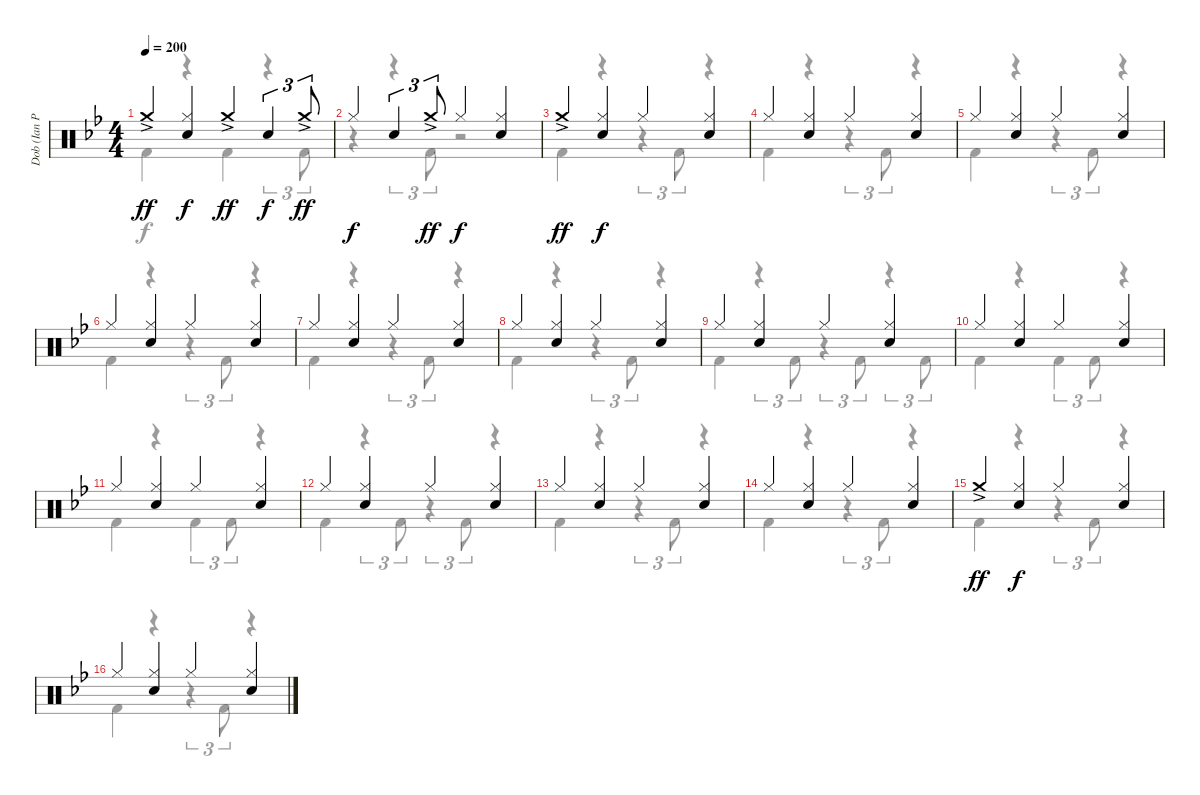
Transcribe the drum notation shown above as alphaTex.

\track ("Dob (Ian Paice)" "Dob (Ian P") {instrument percussion}
\staff {score}
\articulation defaults
\voice
\ts (4 4)
\tempo 200
\clef neutral
\ks bb "Crash medium (hit)"{ac}.4{dy ff}
("Hi-Hat (closed)" "Electric Snare (hit)").4{dy f} "Crash medium (hit)"{ac}.4{dy ff} "Electric Snare (hit)".4{tu (3 2) dy f} "Crash medium (hit)"{ac}.8{tu (3 2) dy ff} |
"Hi-Hat (closed)".4{dy f} "Electric Snare (hit)".4{tu (3 2)} "Crash medium (hit)"{ac}.8{tu (3 2) dy ff} "Hi-Hat (closed)".4{dy f} ("Hi-Hat (closed)" "Electric Snare (hit)").4 |
"Crash medium (hit)"{ac}.4{dy ff} ("Hi-Hat (closed)" "Electric Snare (hit)").4{dy f} "Hi-Hat (closed)".4 ("Hi-Hat (closed)" "Electric Snare (hit)").4 |
"Hi-Hat (closed)".4 ("Hi-Hat (closed)" "Electric Snare (hit)").4 "Hi-Hat (closed)".4 ("Hi-Hat (closed)" "Electric Snare (hit)").4 |
"Hi-Hat (closed)".4 ("Hi-Hat (closed)" "Electric Snare (hit)").4 "Hi-Hat (closed)".4 ("Hi-Hat (closed)" "Electric Snare (hit)").4 |
"Hi-Hat (closed)".4 ("Hi-Hat (closed)" "Electric Snare (hit)").4 "Hi-Hat (closed)".4 ("Hi-Hat (closed)" "Electric Snare (hit)").4 |
"Hi-Hat (closed)".4 ("Hi-Hat (closed)" "Electric Snare (hit)").4 "Hi-Hat (closed)".4 ("Hi-Hat (closed)" "Electric Snare (hit)").4 |
"Hi-Hat (closed)".4 ("Hi-Hat (closed)" "Electric Snare (hit)").4 "Hi-Hat (closed)".4 ("Hi-Hat (closed)" "Electric Snare (hit)").4 |
"Hi-Hat (closed)".4 ("Hi-Hat (closed)" "Electric Snare (hit)").4 "Hi-Hat (closed)".4 ("Hi-Hat (closed)" "Electric Snare (hit)").4 |
"Hi-Hat (closed)".4 ("Hi-Hat (closed)" "Electric Snare (hit)").4 "Hi-Hat (closed)".4 ("Hi-Hat (closed)" "Electric Snare (hit)").4 |
"Hi-Hat (closed)".4 ("Hi-Hat (closed)" "Electric Snare (hit)").4 "Hi-Hat (closed)".4 ("Hi-Hat (closed)" "Electric Snare (hit)").4 |
"Hi-Hat (closed)".4 ("Hi-Hat (closed)" "Electric Snare (hit)").4 "Hi-Hat (closed)".4 ("Hi-Hat (closed)" "Electric Snare (hit)").4 |
"Hi-Hat (closed)".4 ("Hi-Hat (closed)" "Electric Snare (hit)").4 "Hi-Hat (closed)".4 ("Hi-Hat (closed)" "Electric Snare (hit)").4 |
"Hi-Hat (closed)".4 ("Hi-Hat (closed)" "Electric Snare (hit)").4 "Hi-Hat (closed)".4 ("Hi-Hat (closed)" "Electric Snare (hit)").4 |
"Crash medium (hit)"{ac}.4{dy ff} ("Hi-Hat (closed)" "Electric Snare (hit)").4{dy f} "Hi-Hat (closed)".4 ("Hi-Hat (closed)" "Electric Snare (hit)").4 |
"Hi-Hat (closed)".4 ("Hi-Hat (closed)" "Electric Snare (hit)").4 "Hi-Hat (closed)".4 ("Hi-Hat (closed)" "Electric Snare (hit)").4
\voice
\clef neutral
\ottava regular
\simile none
\ks bb "Kick (hit) 2".4{dy f}
r.4 "Kick (hit) 2".4 r.4{tu (3 2)} "Kick (hit) 2".8{tu (3 2)} |
r.4 r.4{tu (3 2)} "Kick (hit) 2".8{tu (3 2)} r.2 |
"Kick (hit) 2".4 r.4 r.4{tu (3 2)} "Kick (hit) 2".8{tu (3 2)} r.4 |
"Kick (hit) 2".4 r.4 r.4{tu (3 2)} "Kick (hit) 2".8{tu (3 2)} r.4 |
"Kick (hit) 2".4 r.4 r.4{tu (3 2)} "Kick (hit) 2".8{tu (3 2)} r.4 |
"Kick (hit) 2".4 r.4 r.4{tu (3 2)} "Kick (hit) 2".8{tu (3 2)} r.4 |
"Kick (hit) 2".4 r.4 r.4{tu (3 2)} "Kick (hit) 2".8{tu (3 2)} r.4 |
"Kick (hit) 2".4 r.4 r.4{tu (3 2)} "Kick (hit) 2".8{tu (3 2)} r.4 |
"Kick (hit) 2".4 r.4{tu (3 2)} "Kick (hit) 2".8{tu (3 2)} r.4{tu (3 2)} "Kick (hit) 2".8{tu (3 2)} r.4{tu (3 2)} "Kick (hit) 2".8{tu (3 2)} |
"Kick (hit) 2".4 r.4 "Kick (hit) 2".4{tu (3 2)} "Kick (hit) 2".8{tu (3 2)} r.4 |
"Kick (hit) 2".4 r.4 "Kick (hit) 2".4{tu (3 2)} "Kick (hit) 2".8{tu (3 2)} r.4 |
"Kick (hit) 2".4 r.4{tu (3 2)} "Kick (hit) 2".8{tu (3 2)} r.4{tu (3 2)} "Kick (hit) 2".8{tu (3 2)} r.4 |
"Kick (hit) 2".4 r.4 r.4{tu (3 2)} "Kick (hit) 2".8{tu (3 2)} r.4 |
"Kick (hit) 2".4 r.4 r.4{tu (3 2)} "Kick (hit) 2".8{tu (3 2)} r.4 |
"Kick (hit) 2".4 r.4 r.4{tu (3 2)} "Kick (hit) 2".8{tu (3 2)} r.4 |
"Kick (hit) 2".4 r.4 r.4{tu (3 2)} "Kick (hit) 2".8{tu (3 2)} r.4
